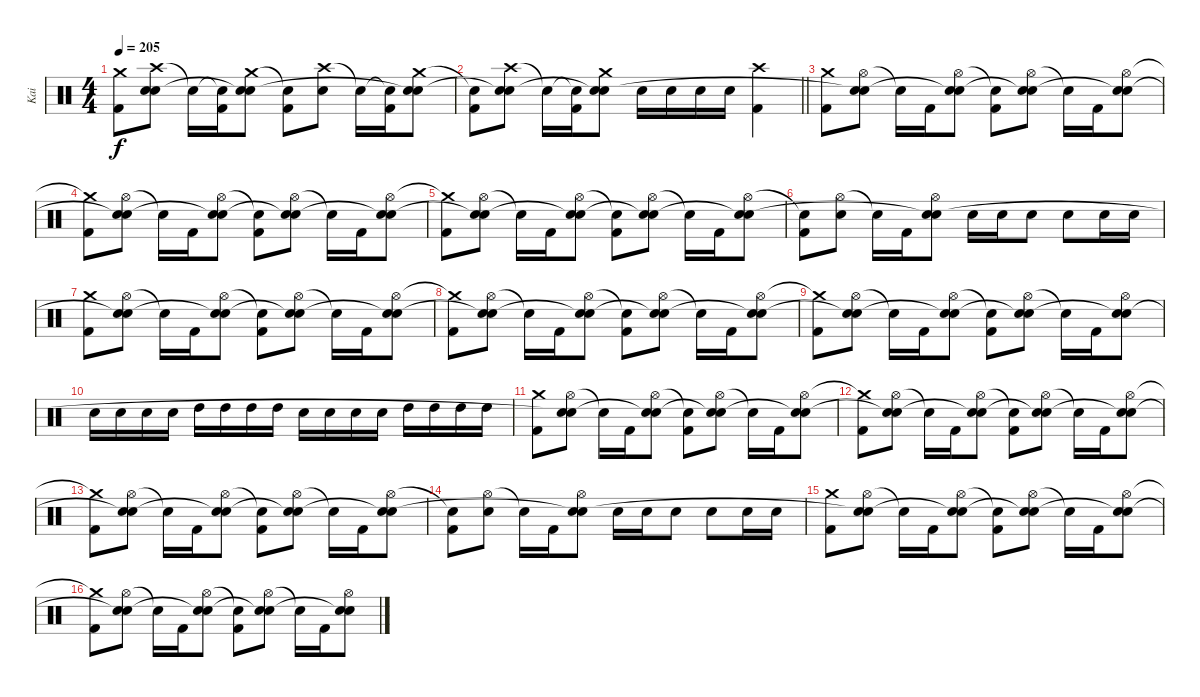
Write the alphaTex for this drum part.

\track ("Kai" "Kai") {instrument percussion}
\staff {score}
\articulation defaults
\ts (4 4)
\tempo 205
\clef neutral
\ks c
("Crash medium (hit)"{t} "Kick (hit) 2").8{dy f} ("Crash high (hit)" "Snare (hit) 2" "Snare (hit)"{t}).8 "Snare (hit)"{t}.16 ("Snare (hit)"{t} "Kick (hit) 2").16 ("Crash medium (hit)" "Snare (hit) 2" "Snare (hit)"{t}).8 ("Snare (hit)"{t} "Kick (hit) 2").8 ("Crash high (hit)" "Snare (hit) 2").8 "Snare (hit)"{t}.16 ("Snare (hit)"{t} "Kick (hit) 2").16 ("Crash medium (hit)" "Snare (hit) 2" "Snare (hit)"{t}).8 |
\barLineRight lightlight
("Snare (hit)"{t} "Kick (hit) 2").8 ("Crash high (hit)" "Snare (hit) 2" "Snare (hit)"{t}).8 "Snare (hit)"{t}.16 ("Snare (hit)"{t} "Kick (hit) 2").16 ("Crash medium (hit)" "Snare (hit) 2" "Snare (hit)"{t}).8 "Snare (hit) 2".16 "Snare (hit) 2".16 "Snare (hit) 2".16 "Snare (hit) 2".16 ("Crash high (hit)" "Kick (hit) 2").4 |
("Crash medium (hit)" "Kick (hit) 2").8 ("Hi-Hat (open)" "Snare (hit) 2" "Snare (hit)"{t}).8 "Snare (hit)"{t}.16 "Kick (hit) 2".16 ("Hi-Hat (open)" "Snare (hit) 2" "Snare (hit)"{t}).8 ("Snare (hit)"{t} "Kick (hit) 2").8 ("Hi-Hat (open)" "Snare (hit) 2" "Snare (hit)"{t}).8 "Snare (hit)"{t}.16 "Kick (hit) 2".16 ("Hi-Hat (open)" "Snare (hit) 2" "Snare (hit)"{t}).8 |
("Crash medium (hit)"{t} "Kick (hit) 2").8 ("Hi-Hat (open)" "Snare (hit) 2" "Snare (hit)"{t}).8 "Snare (hit)"{t}.16 "Kick (hit) 2".16 ("Hi-Hat (open)" "Snare (hit) 2" "Snare (hit)"{t}).8 ("Snare (hit)"{t} "Kick (hit) 2").8 ("Hi-Hat (open)" "Snare (hit) 2" "Snare (hit)"{t}).8 "Snare (hit)"{t}.16 "Kick (hit) 2".16 ("Hi-Hat (open)" "Snare (hit) 2" "Snare (hit)"{t}).8 |
("Crash medium (hit)"{t} "Kick (hit) 2").8 ("Hi-Hat (open)" "Snare (hit) 2" "Snare (hit)"{t}).8 "Snare (hit)"{t}.16 "Kick (hit) 2".16 ("Hi-Hat (open)" "Snare (hit) 2" "Snare (hit)"{t}).8 ("Snare (hit)"{t} "Kick (hit) 2").8 ("Hi-Hat (open)" "Snare (hit) 2" "Snare (hit)"{t}).8 "Snare (hit)"{t}.16 "Kick (hit) 2".16 ("Hi-Hat (open)" "Snare (hit) 2" "Snare (hit)"{t}).8 |
("Snare (hit)"{t} "Kick (hit) 2").8 ("Hi-Hat (open)" "Snare (hit) 2").8 "Snare (hit)"{t}.16 "Kick (hit) 2".16 ("Hi-Hat (open)" "Snare (hit) 2" "Snare (hit)"{t}).8 "Snare (hit) 2".16 "Snare (hit) 2".16 "Snare (hit) 2".8 "Snare (hit) 2".8 "Snare (hit) 2".16 "Snare (hit) 2".16 |
("Crash medium (hit)" "Kick (hit) 2").8 ("Hi-Hat (open)" "Snare (hit) 2" "Snare (hit)"{t}).8 "Snare (hit)"{t}.16 "Kick (hit) 2".16 ("Hi-Hat (open)" "Snare (hit) 2" "Snare (hit)"{t}).8 ("Snare (hit)"{t} "Kick (hit) 2").8 ("Hi-Hat (open)" "Snare (hit) 2" "Snare (hit)"{t}).8 "Snare (hit)"{t}.16 "Kick (hit) 2".16 ("Hi-Hat (open)" "Snare (hit) 2" "Snare (hit)"{t}).8 |
("Crash medium (hit)"{t} "Kick (hit) 2").8 ("Hi-Hat (open)" "Snare (hit) 2" "Snare (hit)"{t}).8 "Snare (hit)"{t}.16 "Kick (hit) 2".16 ("Hi-Hat (open)" "Snare (hit) 2" "Snare (hit)"{t}).8 ("Snare (hit)"{t} "Kick (hit) 2").8 ("Hi-Hat (open)" "Snare (hit) 2" "Snare (hit)"{t}).8 "Snare (hit)"{t}.16 "Kick (hit) 2".16 ("Hi-Hat (open)" "Snare (hit) 2" "Snare (hit)"{t}).8 |
("Crash medium (hit)"{t} "Kick (hit) 2").8 ("Hi-Hat (open)" "Snare (hit) 2" "Snare (hit)"{t}).8 "Snare (hit)"{t}.16 "Kick (hit) 2".16 ("Hi-Hat (open)" "Snare (hit) 2" "Snare (hit)"{t}).8 ("Snare (hit)"{t} "Kick (hit) 2").8 ("Hi-Hat (open)" "Snare (hit) 2" "Snare (hit)"{t}).8 "Snare (hit)"{t}.16 "Kick (hit) 2".16 ("Hi-Hat (open)" "Snare (hit) 2" "Snare (hit)"{t}).8 |
"Snare (hit) 2".16 "Snare (hit) 2".16 "Snare (hit) 2".16 "Snare (hit) 2".16 "High Tom (hit)".16 "High Tom (hit)".16 "High Tom (hit)".16 "High Tom (hit)".16 "Snare (hit) 2".16 "Snare (hit) 2".16 "Snare (hit) 2".16 "Snare (hit) 2".16 "High Tom (hit)".16 "High Tom (hit)".16 "High Tom (hit)".16 "High Tom (hit)".16 |
("Crash medium (hit)" "Kick (hit) 2").8 ("Hi-Hat (open)" "Snare (hit) 2" "Snare (hit)"{t}).8 "Snare (hit)"{t}.16 "Kick (hit) 2".16 ("Hi-Hat (open)" "Snare (hit) 2" "Snare (hit)"{t}).8 ("Snare (hit)"{t} "Kick (hit) 2").8 ("Hi-Hat (open)" "Snare (hit) 2" "Snare (hit)"{t}).8 "Snare (hit)"{t}.16 "Kick (hit) 2".16 ("Hi-Hat (open)" "Snare (hit) 2" "Snare (hit)"{t}).8 |
("Crash medium (hit)"{t} "Kick (hit) 2").8 ("Hi-Hat (open)" "Snare (hit) 2" "Snare (hit)"{t}).8 "Snare (hit)"{t}.16 "Kick (hit) 2".16 ("Hi-Hat (open)" "Snare (hit) 2" "Snare (hit)"{t}).8 ("Snare (hit)"{t} "Kick (hit) 2").8 ("Hi-Hat (open)" "Snare (hit) 2" "Snare (hit)"{t}).8 "Snare (hit)"{t}.16 "Kick (hit) 2".16 ("Hi-Hat (open)" "Snare (hit) 2" "Snare (hit)"{t}).8 |
("Crash medium (hit)"{t} "Kick (hit) 2").8 ("Hi-Hat (open)" "Snare (hit) 2" "Snare (hit)"{t}).8 "Snare (hit)"{t}.16 "Kick (hit) 2".16 ("Hi-Hat (open)" "Snare (hit) 2" "Snare (hit)"{t}).8 ("Snare (hit)"{t} "Kick (hit) 2").8 ("Hi-Hat (open)" "Snare (hit) 2" "Snare (hit)"{t}).8 "Snare (hit)"{t}.16 "Kick (hit) 2".16 ("Hi-Hat (open)" "Snare (hit) 2" "Snare (hit)"{t}).8 |
("Snare (hit)"{t} "Kick (hit) 2").8 ("Hi-Hat (open)" "Snare (hit) 2").8 "Snare (hit)"{t}.16 "Kick (hit) 2".16 ("Hi-Hat (open)" "Snare (hit) 2" "Snare (hit)"{t}).8 "Snare (hit) 2".16 "Snare (hit) 2".16 "Snare (hit) 2".8 "Snare (hit) 2".8 "Snare (hit) 2".16 "Snare (hit) 2".16 |
("Crash medium (hit)" "Kick (hit) 2").8 ("Hi-Hat (open)" "Snare (hit) 2" "Snare (hit)"{t}).8 "Snare (hit)"{t}.16 "Kick (hit) 2".16 ("Hi-Hat (open)" "Snare (hit) 2" "Snare (hit)"{t}).8 ("Snare (hit)"{t} "Kick (hit) 2").8 ("Hi-Hat (open)" "Snare (hit) 2" "Snare (hit)"{t}).8 "Snare (hit)"{t}.16 "Kick (hit) 2".16 ("Hi-Hat (open)" "Snare (hit) 2" "Snare (hit)"{t}).8 |
("Crash medium (hit)"{t} "Kick (hit) 2").8 ("Hi-Hat (open)" "Snare (hit) 2" "Snare (hit)"{t}).8 "Snare (hit)"{t}.16 "Kick (hit) 2".16 ("Hi-Hat (open)" "Snare (hit) 2" "Snare (hit)"{t}).8 ("Snare (hit)"{t} "Kick (hit) 2").8 ("Hi-Hat (open)" "Snare (hit) 2" "Snare (hit)"{t}).8 "Snare (hit)"{t}.16 "Kick (hit) 2".16 ("Hi-Hat (open)" "Snare (hit) 2" "Snare (hit)"{t}).8
